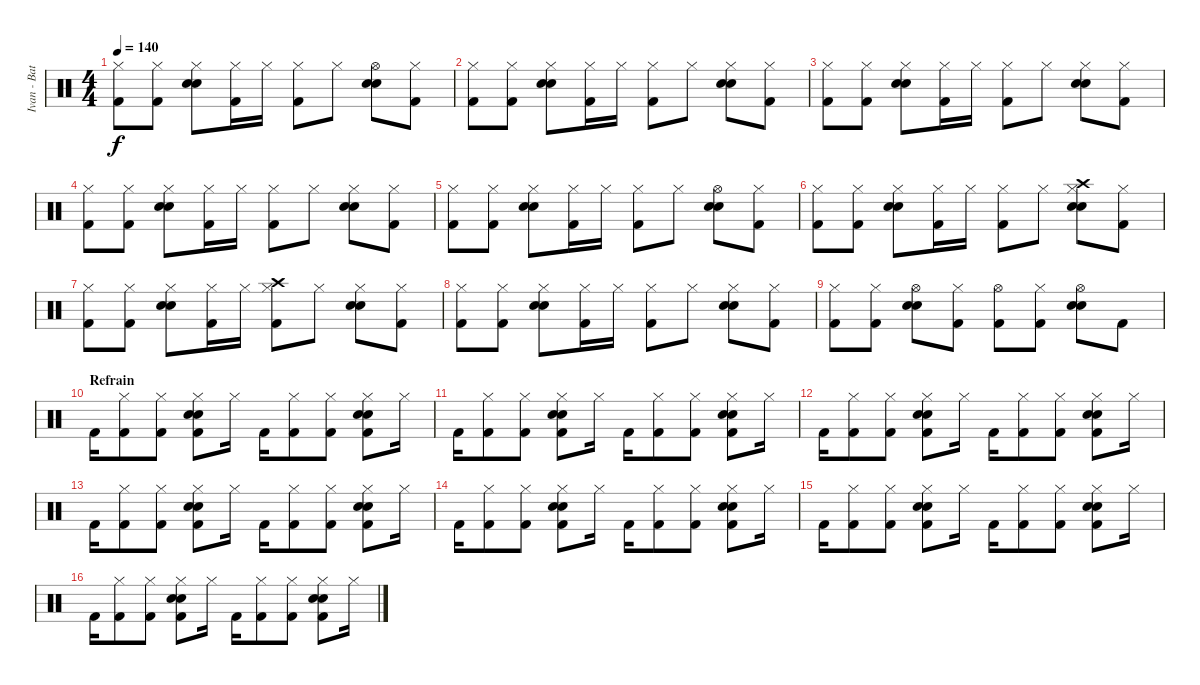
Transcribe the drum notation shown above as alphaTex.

\track ("Ivan - Batterie" "Ivan - Bat") {instrument percussion}
\staff {score}
\articulation defaults
\ts (4 4)
\tempo 140
\clef neutral
\ks c
("Hi-Hat (closed)" "Kick (hit) 2").8{dy f} ("Hi-Hat (closed)" "Kick (hit) 2").8 ("Hi-Hat (closed)" "Electric Snare (hit)" "Snare (hit) 2").8 ("Hi-Hat (closed)" "Kick (hit) 2").16 "Hi-Hat (closed)".16 ("Hi-Hat (closed)" "Kick (hit) 2").8 "Hi-Hat (closed)".8 ("Hi-Hat (open)" "Electric Snare (hit)" "Snare (hit) 2").8 ("Hi-Hat (closed)" "Kick (hit) 2").8 |
("Hi-Hat (closed)" "Kick (hit) 2").8 ("Hi-Hat (closed)" "Kick (hit) 2").8 ("Hi-Hat (closed)" "Electric Snare (hit)" "Snare (hit) 2").8 ("Hi-Hat (closed)" "Kick (hit) 2").16 "Hi-Hat (closed)".16 ("Hi-Hat (closed)" "Kick (hit) 2").8 "Hi-Hat (closed)".8 ("Hi-Hat (closed)" "Electric Snare (hit)" "Snare (hit) 2").8 ("Hi-Hat (closed)" "Kick (hit) 2").8 |
("Hi-Hat (closed)" "Kick (hit) 2").8 ("Hi-Hat (closed)" "Kick (hit) 2").8 ("Hi-Hat (closed)" "Electric Snare (hit)" "Snare (hit) 2").8 ("Hi-Hat (closed)" "Kick (hit) 2").16 "Hi-Hat (closed)".16 ("Hi-Hat (closed)" "Kick (hit) 2").8 "Hi-Hat (closed)".8 ("Hi-Hat (closed)" "Electric Snare (hit)" "Snare (hit) 2").8 ("Hi-Hat (closed)" "Kick (hit) 2").8 |
("Hi-Hat (closed)" "Kick (hit) 2").8 ("Hi-Hat (closed)" "Kick (hit) 2").8 ("Hi-Hat (closed)" "Electric Snare (hit)" "Snare (hit) 2").8 ("Hi-Hat (closed)" "Kick (hit) 2").16 "Hi-Hat (closed)".16 ("Hi-Hat (closed)" "Kick (hit) 2").8 "Hi-Hat (closed)".8 ("Hi-Hat (closed)" "Electric Snare (hit)" "Snare (hit) 2").8 ("Hi-Hat (closed)" "Kick (hit) 2").8 |
("Hi-Hat (closed)" "Kick (hit) 2").8 ("Hi-Hat (closed)" "Kick (hit) 2").8 ("Hi-Hat (closed)" "Electric Snare (hit)" "Snare (hit) 2").8 ("Hi-Hat (closed)" "Kick (hit) 2").16 "Hi-Hat (closed)".16 ("Hi-Hat (closed)" "Kick (hit) 2").8 "Hi-Hat (closed)".8 ("Hi-Hat (open)" "Electric Snare (hit)" "Snare (hit) 2").8 ("Hi-Hat (closed)" "Kick (hit) 2").8 |
("Hi-Hat (closed)" "Kick (hit) 2").8 ("Hi-Hat (closed)" "Kick (hit) 2").8 ("Hi-Hat (closed)" "Electric Snare (hit)" "Snare (hit) 2").8 ("Hi-Hat (closed)" "Kick (hit) 2").16 "Hi-Hat (closed)".16 ("Hi-Hat (closed)" "Kick (hit) 2").8 "Hi-Hat (closed)".8 ("Hi-Hat (closed)" "Crash high (hit)" "Electric Snare (hit)" "Snare (hit) 2").8 ("Hi-Hat (closed)" "Kick (hit) 2").8 |
("Hi-Hat (closed)" "Kick (hit) 2").8 ("Hi-Hat (closed)" "Kick (hit) 2").8 ("Hi-Hat (closed)" "Electric Snare (hit)" "Snare (hit) 2").8 ("Hi-Hat (closed)" "Kick (hit) 2").16 "Hi-Hat (closed)".16 ("Hi-Hat (closed)" "Crash high (hit)" "Kick (hit) 2").8 "Hi-Hat (closed)".8 ("Hi-Hat (closed)" "Electric Snare (hit)" "Snare (hit) 2").8 ("Hi-Hat (closed)" "Kick (hit) 2").8 |
("Hi-Hat (closed)" "Kick (hit) 2").8 ("Hi-Hat (closed)" "Kick (hit) 2").8 ("Hi-Hat (closed)" "Electric Snare (hit)" "Snare (hit) 2").8 ("Hi-Hat (closed)" "Kick (hit) 2").16 "Hi-Hat (closed)".16 ("Hi-Hat (closed)" "Kick (hit) 2").8 "Hi-Hat (closed)".8 ("Hi-Hat (closed)" "Electric Snare (hit)" "Snare (hit) 2").8 ("Hi-Hat (closed)" "Kick (hit) 2").8 |
("Hi-Hat (closed)" "Kick (hit) 2").8 ("Hi-Hat (closed)" "Kick (hit) 2").8 ("Hi-Hat (open)" "Electric Snare (hit)" "Snare (hit) 2").8 ("Hi-Hat (closed)" "Kick (hit) 2").8 ("Hi-Hat (open)" "Kick (hit) 2").8 ("Hi-Hat (closed)" "Kick (hit) 2").8 ("Hi-Hat (open)" "Electric Snare (hit)" "Snare (hit) 2").8 "Kick (hit) 2".8 |
\section ("" "Refrain")
"Kick (hit) 2".16 ("Hi-Hat (closed)" "Kick (hit) 2").8 ("Hi-Hat (closed)" "Kick (hit) 2").8 ("Hi-Hat (closed)" "Electric Snare (hit)" "Snare (hit) 2" "Kick (hit) 2").8 "Hi-Hat (closed)".16 "Kick (hit) 2".16 ("Hi-Hat (closed)" "Kick (hit) 2").8 ("Hi-Hat (closed)" "Kick (hit) 2").8 ("Hi-Hat (closed)" "Electric Snare (hit)" "Snare (hit) 2" "Kick (hit) 2").8 "Hi-Hat (closed)".16 |
"Kick (hit) 2".16 ("Hi-Hat (closed)" "Kick (hit) 2").8 ("Hi-Hat (closed)" "Kick (hit) 2").8 ("Hi-Hat (closed)" "Electric Snare (hit)" "Snare (hit) 2" "Kick (hit) 2").8 "Hi-Hat (closed)".16 "Kick (hit) 2".16 ("Hi-Hat (closed)" "Kick (hit) 2").8 ("Hi-Hat (closed)" "Kick (hit) 2").8 ("Hi-Hat (closed)" "Electric Snare (hit)" "Snare (hit) 2" "Kick (hit) 2").8 "Hi-Hat (closed)".16 |
"Kick (hit) 2".16 ("Hi-Hat (closed)" "Kick (hit) 2").8 ("Hi-Hat (closed)" "Kick (hit) 2").8 ("Hi-Hat (closed)" "Electric Snare (hit)" "Snare (hit) 2" "Kick (hit) 2").8 "Hi-Hat (closed)".16 "Kick (hit) 2".16 ("Hi-Hat (closed)" "Kick (hit) 2").8 ("Hi-Hat (closed)" "Kick (hit) 2").8 ("Hi-Hat (closed)" "Electric Snare (hit)" "Snare (hit) 2" "Kick (hit) 2").8 "Hi-Hat (closed)".16 |
"Kick (hit) 2".16 ("Hi-Hat (closed)" "Kick (hit) 2").8 ("Hi-Hat (closed)" "Kick (hit) 2").8 ("Hi-Hat (closed)" "Electric Snare (hit)" "Snare (hit) 2" "Kick (hit) 2").8 "Hi-Hat (closed)".16 "Kick (hit) 2".16 ("Hi-Hat (closed)" "Kick (hit) 2").8 ("Hi-Hat (closed)" "Kick (hit) 2").8 ("Hi-Hat (closed)" "Electric Snare (hit)" "Snare (hit) 2" "Kick (hit) 2").8 "Hi-Hat (closed)".16 |
"Kick (hit) 2".16 ("Hi-Hat (closed)" "Kick (hit) 2").8 ("Hi-Hat (closed)" "Kick (hit) 2").8 ("Hi-Hat (closed)" "Electric Snare (hit)" "Snare (hit) 2" "Kick (hit) 2").8 "Hi-Hat (closed)".16 "Kick (hit) 2".16 ("Hi-Hat (closed)" "Kick (hit) 2").8 ("Hi-Hat (closed)" "Kick (hit) 2").8 ("Hi-Hat (closed)" "Electric Snare (hit)" "Snare (hit) 2" "Kick (hit) 2").8 "Hi-Hat (closed)".16 |
"Kick (hit) 2".16 ("Hi-Hat (closed)" "Kick (hit) 2").8 ("Hi-Hat (closed)" "Kick (hit) 2").8 ("Hi-Hat (closed)" "Electric Snare (hit)" "Snare (hit) 2" "Kick (hit) 2").8 "Hi-Hat (closed)".16 "Kick (hit) 2".16 ("Hi-Hat (closed)" "Kick (hit) 2").8 ("Hi-Hat (closed)" "Kick (hit) 2").8 ("Hi-Hat (closed)" "Electric Snare (hit)" "Snare (hit) 2" "Kick (hit) 2").8 "Hi-Hat (closed)".16 |
"Kick (hit) 2".16 ("Hi-Hat (closed)" "Kick (hit) 2").8 ("Hi-Hat (closed)" "Kick (hit) 2").8 ("Hi-Hat (closed)" "Electric Snare (hit)" "Snare (hit) 2" "Kick (hit) 2").8 "Hi-Hat (closed)".16 "Kick (hit) 2".16 ("Hi-Hat (closed)" "Kick (hit) 2").8 ("Hi-Hat (closed)" "Kick (hit) 2").8 ("Hi-Hat (closed)" "Electric Snare (hit)" "Snare (hit) 2" "Kick (hit) 2").8 "Hi-Hat (closed)".16
